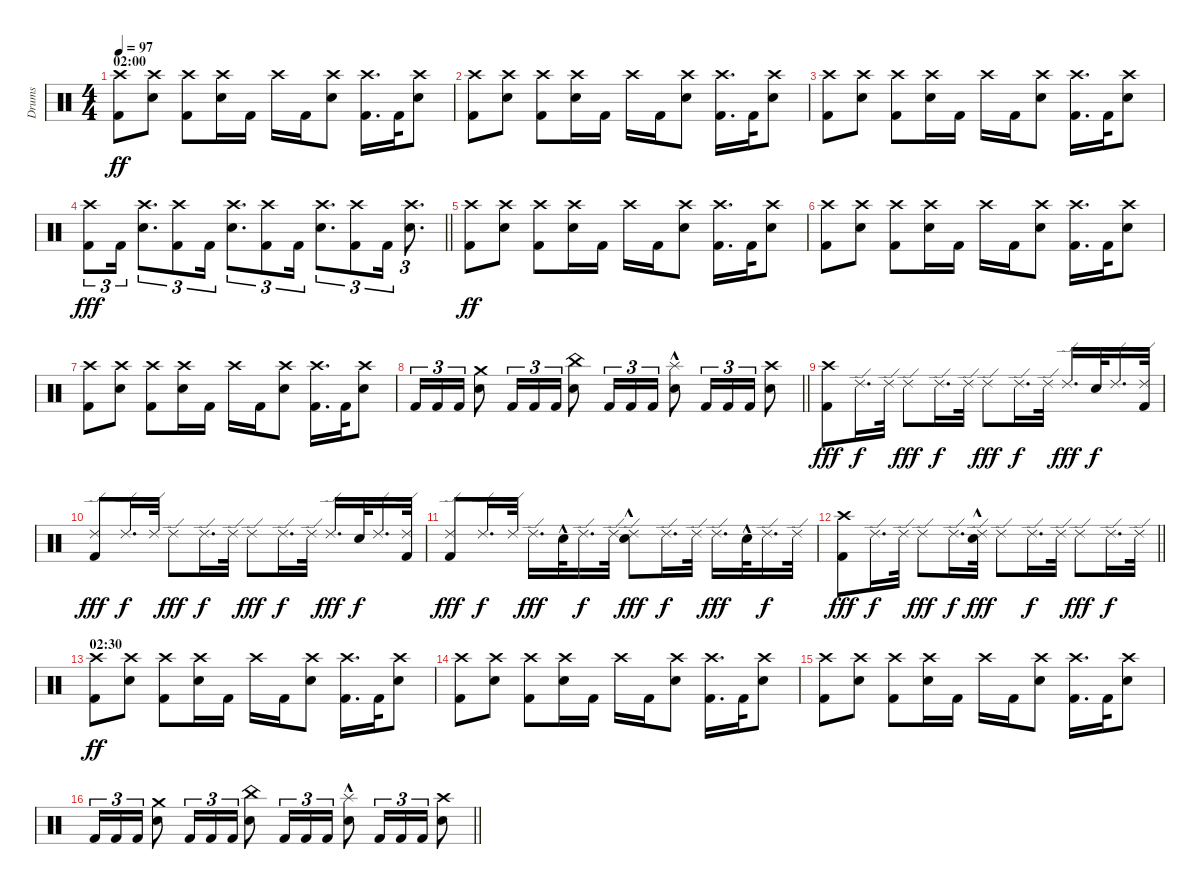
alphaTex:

\track ("Drums" "Drums") {instrument percussion}
\staff {score}
\articulation defaults
\ts (4 4)
\section ("" "02:00")
\tempo 97
\clef neutral
\ks c
("Crash high (hit)" "Kick (hit) 2").8{dy ff} ("Crash high (hit)" "Electric Snare (hit)").8 ("Crash high (hit)" "Kick (hit) 2").8 ("Crash high (hit)" "Electric Snare (hit)").16 "Kick (hit) 2".16 "Crash high (hit)".16 "Kick (hit) 2".16 ("Crash high (hit)" "Electric Snare (hit)").8 ("Crash high (hit)" "Kick (hit) 2").16{d} "Kick (hit) 2".32 ("Crash high (hit)" "Electric Snare (hit)").8 |
("Crash high (hit)" "Kick (hit) 2").8 ("Crash high (hit)" "Electric Snare (hit)").8 ("Crash high (hit)" "Kick (hit) 2").8 ("Crash high (hit)" "Electric Snare (hit)").16 "Kick (hit) 2".16 "Crash high (hit)".16 "Kick (hit) 2".16 ("Crash high (hit)" "Electric Snare (hit)").8 ("Crash high (hit)" "Kick (hit) 2").16{d} "Kick (hit) 2".32 ("Crash high (hit)" "Electric Snare (hit)").8 |
("Crash high (hit)" "Kick (hit) 2").8 ("Crash high (hit)" "Electric Snare (hit)").8 ("Crash high (hit)" "Kick (hit) 2").8 ("Crash high (hit)" "Electric Snare (hit)").16 "Kick (hit) 2".16 "Crash high (hit)".16 "Kick (hit) 2".16 ("Crash high (hit)" "Electric Snare (hit)").8 ("Crash high (hit)" "Kick (hit) 2").16{d} "Kick (hit) 2".32 ("Crash high (hit)" "Electric Snare (hit)").8 |
\barLineRight lightlight
("Crash high (hit)" "Kick (hit) 2").8{tu (3 2) dy fff} "Kick (hit) 2".16{tu (3 2)} ("Crash high (hit)" "Electric Snare (hit)").8{d tu (3 2)} ("Crash high (hit)" "Kick (hit) 2").8{tu (3 2)} "Kick (hit) 2".16{tu (3 2)} ("Crash high (hit)" "Electric Snare (hit)").8{d tu (3 2)} ("Crash high (hit)" "Kick (hit) 2").8{tu (3 2)} "Kick (hit) 2".16{tu (3 2)} ("Crash high (hit)" "Electric Snare (hit)").8{d tu (3 2)} ("Crash high (hit)" "Kick (hit) 2").8{tu (3 2)} "Kick (hit) 2".16{tu (3 2)} ("Crash high (hit)" "Electric Snare (hit)").8{d tu (3 2)} |
("Crash high (hit)" "Kick (hit) 2").8{dy ff} ("Crash high (hit)" "Electric Snare (hit)").8 ("Crash high (hit)" "Kick (hit) 2").8 ("Crash high (hit)" "Electric Snare (hit)").16 "Kick (hit) 2".16 "Crash high (hit)".16 "Kick (hit) 2".16 ("Crash high (hit)" "Electric Snare (hit)").8 ("Crash high (hit)" "Kick (hit) 2").16{d} "Kick (hit) 2".32 ("Crash high (hit)" "Electric Snare (hit)").8 |
("Crash high (hit)" "Kick (hit) 2").8 ("Crash high (hit)" "Electric Snare (hit)").8 ("Crash high (hit)" "Kick (hit) 2").8 ("Crash high (hit)" "Electric Snare (hit)").16 "Kick (hit) 2".16 "Crash high (hit)".16 "Kick (hit) 2".16 ("Crash high (hit)" "Electric Snare (hit)").8 ("Crash high (hit)" "Kick (hit) 2").16{d} "Kick (hit) 2".32 ("Crash high (hit)" "Electric Snare (hit)").8 |
("Crash high (hit)" "Kick (hit) 2").8 ("Crash high (hit)" "Electric Snare (hit)").8 ("Crash high (hit)" "Kick (hit) 2").8 ("Crash high (hit)" "Electric Snare (hit)").16 "Kick (hit) 2".16 "Crash high (hit)".16 "Kick (hit) 2".16 ("Crash high (hit)" "Electric Snare (hit)").8 ("Crash high (hit)" "Kick (hit) 2").16{d} "Kick (hit) 2".32 ("Crash high (hit)" "Electric Snare (hit)").8 |
\barLineRight lightlight "Kick (hit) 2".16{tu (3 2)} "Kick (hit) 2".16{tu (3 2)} "Kick (hit) 2".16{tu (3 2)}
("Crash medium (hit)" "Electric Snare (hit)").8 "Kick (hit) 2".16{tu (3 2)} "Kick (hit) 2".16{tu (3 2)} "Kick (hit) 2".16{tu (3 2)} ("China (hit)" "Electric Snare (hit)").8 "Kick (hit) 2".16{tu (3 2)} "Kick (hit) 2".16{tu (3 2)} "Kick (hit) 2".16{tu (3 2)} ("Splash (hit)"{hac} "Electric Snare (hit)").8 "Kick (hit) 2".16{tu (3 2)} "Kick (hit) 2".16{tu (3 2)} "Kick (hit) 2".16{tu (3 2)} ("Crash high (hit)" "Electric Snare (hit)").8 |
("Crash high (hit)" "Kick (hit) 2").8{dy fff} "Ride (edge) 2".16{d dy f} "Ride (edge) 2".32 "Ride (edge) 2".8{dy fff} "Ride (edge) 2".16{d dy f} "Ride (edge) 2".32 "Ride (edge) 2".8{dy fff} "Ride (edge) 2".16{d dy f} "Ride (edge) 2".32 "Ride (edge) 2".16{d dy fff} "Electric Snare (hit)".32{dy f} "Ride (edge) 2".16{d} ("Ride (edge) 2" "Kick (hit) 2").32 |
("Ride (edge) 2" "Kick (hit) 2").8{dy fff} "Ride (edge) 2".16{d dy f} "Ride (edge) 2".32 "Ride (edge) 2".8{dy fff} "Ride (edge) 2".16{d dy f} "Ride (edge) 2".32 "Ride (edge) 2".8{dy fff} "Ride (edge) 2".16{d dy f} "Ride (edge) 2".32 "Ride (edge) 2".16{d dy fff} "Electric Snare (hit)".32{dy f} "Ride (edge) 2".16{d} ("Ride (edge) 2" "Kick (hit) 2").32 |
("Ride (edge) 2" "Kick (hit) 2").8{dy fff} "Ride (edge) 2".16{d dy f} "Ride (edge) 2".32 "Ride (edge) 2".16{d dy fff} "Electric Snare (hit)"{hac}.32 "Ride (edge) 2".16{d dy f} "Ride (edge) 2".32 ("Ride (edge) 2" "Electric Snare (hit)"{hac}).8{dy fff} "Ride (edge) 2".16{d dy f} "Ride (edge) 2".32 "Ride (edge) 2".16{d dy fff} "Electric Snare (hit)"{hac}.32 "Ride (edge) 2".16{d dy f} "Ride (edge) 2".32 |
\barLineRight lightlight
("Crash high (hit)" "Kick (hit) 2").8{dy fff} "Ride (edge) 2".16{d dy f} "Ride (edge) 2".32 "Ride (edge) 2".8{dy fff} "Ride (edge) 2".16{d dy f} ("Ride (edge) 2" "Electric Snare (hit)"{hac}).32{dy fff} "Ride (edge) 2".8 "Ride (edge) 2".16{d dy f} "Ride (edge) 2".32 "Ride (edge) 2".8{dy fff} "Ride (edge) 2".16{d dy f} "Ride (edge) 2".32 |
\section ("" "02:30")
("Crash high (hit)" "Kick (hit) 2").8{dy ff} ("Crash high (hit)" "Electric Snare (hit)").8 ("Crash high (hit)" "Kick (hit) 2").8 ("Crash high (hit)" "Electric Snare (hit)").16 "Kick (hit) 2".16 "Crash high (hit)".16 "Kick (hit) 2".16 ("Crash high (hit)" "Electric Snare (hit)").8 ("Crash high (hit)" "Kick (hit) 2").16{d} "Kick (hit) 2".32 ("Crash high (hit)" "Electric Snare (hit)").8 |
("Crash high (hit)" "Kick (hit) 2").8 ("Crash high (hit)" "Electric Snare (hit)").8 ("Crash high (hit)" "Kick (hit) 2").8 ("Crash high (hit)" "Electric Snare (hit)").16 "Kick (hit) 2".16 "Crash high (hit)".16 "Kick (hit) 2".16 ("Crash high (hit)" "Electric Snare (hit)").8 ("Crash high (hit)" "Kick (hit) 2").16{d} "Kick (hit) 2".32 ("Crash high (hit)" "Electric Snare (hit)").8 |
("Crash high (hit)" "Kick (hit) 2").8 ("Crash high (hit)" "Electric Snare (hit)").8 ("Crash high (hit)" "Kick (hit) 2").8 ("Crash high (hit)" "Electric Snare (hit)").16 "Kick (hit) 2".16 "Crash high (hit)".16 "Kick (hit) 2".16 ("Crash high (hit)" "Electric Snare (hit)").8 ("Crash high (hit)" "Kick (hit) 2").16{d} "Kick (hit) 2".32 ("Crash high (hit)" "Electric Snare (hit)").8 |
\barLineRight lightlight "Kick (hit) 2".16{tu (3 2)} "Kick (hit) 2".16{tu (3 2)} "Kick (hit) 2".16{tu (3 2)}
("Crash medium (hit)" "Electric Snare (hit)").8 "Kick (hit) 2".16{tu (3 2)} "Kick (hit) 2".16{tu (3 2)} "Kick (hit) 2".16{tu (3 2)} ("China (hit)" "Electric Snare (hit)").8 "Kick (hit) 2".16{tu (3 2)} "Kick (hit) 2".16{tu (3 2)} "Kick (hit) 2".16{tu (3 2)} ("Splash (hit)"{hac} "Electric Snare (hit)").8 "Kick (hit) 2".16{tu (3 2)} "Kick (hit) 2".16{tu (3 2)} "Kick (hit) 2".16{tu (3 2)} ("Crash high (hit)" "Electric Snare (hit)").8
